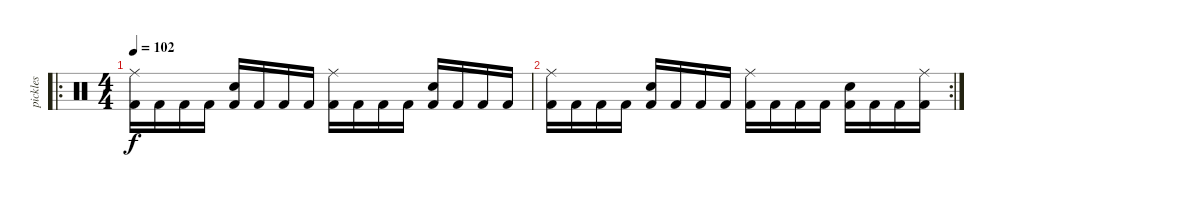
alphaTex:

\track ("pickles" "pickles") {instrument percussion}
\staff {score}
\articulation defaults
\ro
\ts (4 4)
\tempo 102
\clef neutral
\ks c
("Kick (hit) 2" "Ride (middle)").16{dy f} "Kick (hit) 2".16 "Kick (hit) 2".16 "Kick (hit) 2".16 ("Kick (hit) 2" "Electric Snare (hit)").16 "Kick (hit) 2".16 "Kick (hit) 2".16 "Kick (hit) 2".16 ("Kick (hit) 2" "Ride (middle)").16 "Kick (hit) 2".16 "Kick (hit) 2".16 "Kick (hit) 2".16 ("Kick (hit) 2" "Electric Snare (hit)").16 "Kick (hit) 2".16 "Kick (hit) 2".16 "Kick (hit) 2".16 |
\rc 2
("Kick (hit) 2" "Ride (middle)").16 "Kick (hit) 2".16 "Kick (hit) 2".16 "Kick (hit) 2".16 ("Kick (hit) 2" "Electric Snare (hit)").16 "Kick (hit) 2".16 "Kick (hit) 2".16 "Kick (hit) 2".16 ("Kick (hit) 2" "Ride (middle)").16 "Kick (hit) 2".16 "Kick (hit) 2".16 "Kick (hit) 2".16 ("Kick (hit) 2" "Electric Snare (hit)").16 "Kick (hit) 2".16 "Kick (hit) 2".16 ("Kick (hit) 2" "Ride (middle)").16
